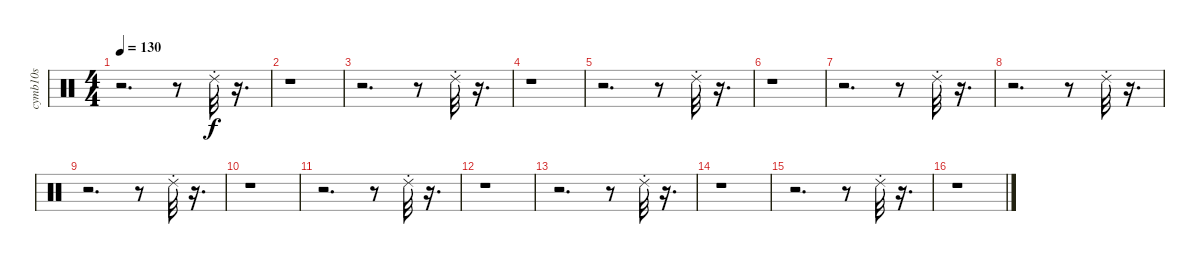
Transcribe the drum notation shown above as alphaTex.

\track ("cymb10s             " "cymb10s   ") {instrument percussion}
\staff {score}
\articulation defaults
\ts (4 4)
\tempo 130
\clef neutral
\ks c
r.2{d dy f} r.8 "Ride (choke) 2".32 r.16{d} |
r.1 |
r.2{d} r.8 "Ride (choke) 2".32 r.16{d} |
r.1 |
r.2{d} r.8 "Ride (choke) 2".32 r.16{d} |
r.1 |
r.2{d} r.8 "Ride (choke) 2".32 r.16{d} |
r.2{d} r.8 "Ride (choke) 2".32 r.16{d} |
r.2{d} r.8 "Ride (choke) 2".32 r.16{d} |
r.1 |
r.2{d} r.8 "Ride (choke) 2".32 r.16{d} |
r.1 |
r.2{d} r.8 "Ride (choke) 2".32 r.16{d} |
r.1 |
r.2{d} r.8 "Ride (choke) 2".32 r.16{d} |
r.1
